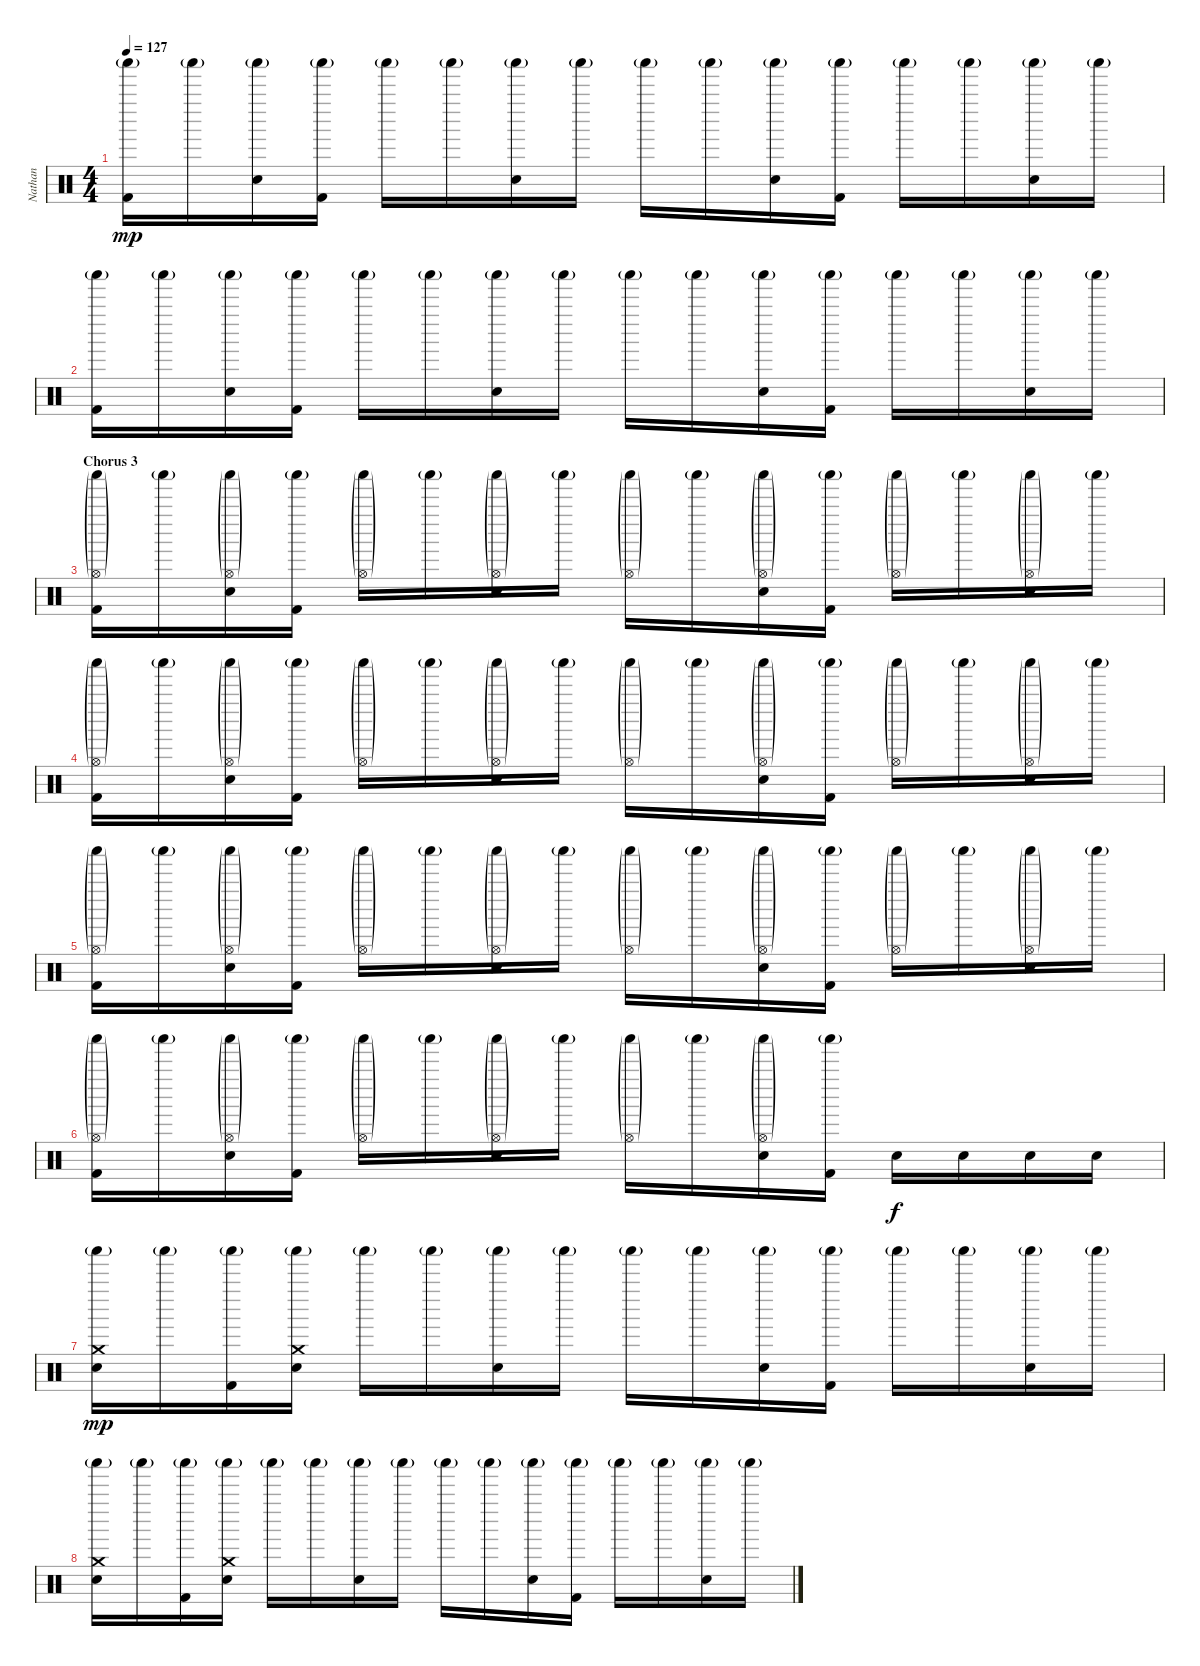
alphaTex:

\track ("Nathan" "Nathan") {instrument percussion}
\staff {score}
\articulation defaults
\ts (4 4)
\tempo 127
\clef neutral
\ks c
("Shaker (hit)"{g} "Kick (hit) 2").16{dy mp} "Shaker (hit)"{g}.16 ("Shaker (hit)"{g} "Electric Snare (hit)").16 ("Shaker (hit)"{g} "Kick (hit) 2").16 "Shaker (hit)"{g}.16 "Shaker (hit)"{g}.16 ("Shaker (hit)"{g} "Electric Snare (hit)").16 "Shaker (hit)"{g}.16 "Shaker (hit)"{g}.16 "Shaker (hit)"{g}.16 ("Shaker (hit)"{g} "Electric Snare (hit)").16 ("Shaker (hit)"{g} "Kick (hit) 2").16 "Shaker (hit)"{g}.16 "Shaker (hit)"{g}.16 ("Shaker (hit)"{g} "Electric Snare (hit)").16 "Shaker (hit)"{g}.16 |
("Shaker (hit)"{g} "Kick (hit) 2").16 "Shaker (hit)"{g}.16 ("Shaker (hit)"{g} "Electric Snare (hit)").16 ("Shaker (hit)"{g} "Kick (hit) 2").16 "Shaker (hit)"{g}.16 "Shaker (hit)"{g}.16 ("Shaker (hit)"{g} "Electric Snare (hit)").16 "Shaker (hit)"{g}.16 "Shaker (hit)"{g}.16 "Shaker (hit)"{g}.16 ("Shaker (hit)"{g} "Electric Snare (hit)").16 ("Shaker (hit)"{g} "Kick (hit) 2").16 "Shaker (hit)"{g}.16 "Shaker (hit)"{g}.16 ("Shaker (hit)"{g} "Electric Snare (hit)").16 "Shaker (hit)"{g}.16 |
\section ("" "Chorus 3")
("Shaker (hit)"{g} "Hi-Hat (open)"{g} "Kick (hit) 2").16 "Shaker (hit)"{g}.16 ("Shaker (hit)"{g} "Hi-Hat (open)"{g} "Electric Snare (hit)").16 ("Shaker (hit)"{g} "Kick (hit) 2").16 ("Shaker (hit)"{g} "Hi-Hat (open)"{g}).16 "Shaker (hit)"{g}.16 ("Shaker (hit)"{g} "Hi-Hat (open)"{g} "Electric Snare (hit)").16 "Shaker (hit)"{g}.16 ("Shaker (hit)"{g} "Hi-Hat (open)"{g}).16 "Shaker (hit)"{g}.16 ("Shaker (hit)"{g} "Hi-Hat (open)"{g} "Electric Snare (hit)").16 ("Shaker (hit)"{g} "Kick (hit) 2").16 ("Shaker (hit)"{g} "Hi-Hat (open)"{g}).16 "Shaker (hit)"{g}.16 ("Shaker (hit)"{g} "Hi-Hat (open)"{g} "Electric Snare (hit)").16 "Shaker (hit)"{g}.16 |
("Shaker (hit)"{g} "Hi-Hat (open)"{g} "Kick (hit) 2").16 "Shaker (hit)"{g}.16 ("Shaker (hit)"{g} "Hi-Hat (open)"{g} "Electric Snare (hit)").16 ("Shaker (hit)"{g} "Kick (hit) 2").16 ("Shaker (hit)"{g} "Hi-Hat (open)"{g}).16 "Shaker (hit)"{g}.16 ("Shaker (hit)"{g} "Hi-Hat (open)"{g} "Electric Snare (hit)").16 "Shaker (hit)"{g}.16 ("Shaker (hit)"{g} "Hi-Hat (open)"{g}).16 "Shaker (hit)"{g}.16 ("Shaker (hit)"{g} "Hi-Hat (open)"{g} "Electric Snare (hit)").16 ("Shaker (hit)"{g} "Kick (hit) 2").16 ("Shaker (hit)"{g} "Hi-Hat (open)"{g}).16 "Shaker (hit)"{g}.16 ("Shaker (hit)"{g} "Hi-Hat (open)"{g} "Electric Snare (hit)").16 "Shaker (hit)"{g}.16 |
("Shaker (hit)"{g} "Hi-Hat (open)"{g} "Kick (hit) 2").16 "Shaker (hit)"{g}.16 ("Shaker (hit)"{g} "Hi-Hat (open)"{g} "Electric Snare (hit)").16 ("Shaker (hit)"{g} "Kick (hit) 2").16 ("Shaker (hit)"{g} "Hi-Hat (open)"{g}).16 "Shaker (hit)"{g}.16 ("Shaker (hit)"{g} "Hi-Hat (open)"{g} "Electric Snare (hit)").16 "Shaker (hit)"{g}.16 ("Shaker (hit)"{g} "Hi-Hat (open)"{g}).16 "Shaker (hit)"{g}.16 ("Shaker (hit)"{g} "Hi-Hat (open)"{g} "Electric Snare (hit)").16 ("Shaker (hit)"{g} "Kick (hit) 2").16 ("Shaker (hit)"{g} "Hi-Hat (open)"{g}).16 "Shaker (hit)"{g}.16 ("Shaker (hit)"{g} "Hi-Hat (open)"{g} "Electric Snare (hit)").16 "Shaker (hit)"{g}.16 |
("Shaker (hit)"{g} "Hi-Hat (open)"{g} "Kick (hit) 2").16 "Shaker (hit)"{g}.16 ("Shaker (hit)"{g} "Hi-Hat (open)"{g} "Electric Snare (hit)").16 ("Shaker (hit)"{g} "Kick (hit) 2").16 ("Shaker (hit)"{g} "Hi-Hat (open)"{g}).16 "Shaker (hit)"{g}.16 ("Shaker (hit)"{g} "Hi-Hat (open)"{g} "Electric Snare (hit)").16 "Shaker (hit)"{g}.16 ("Shaker (hit)"{g} "Hi-Hat (open)"{g}).16 "Shaker (hit)"{g}.16 ("Shaker (hit)"{g} "Hi-Hat (open)"{g} "Electric Snare (hit)").16 ("Shaker (hit)"{g} "Kick (hit) 2").16 "Electric Snare (hit)".16{dy f} "Electric Snare (hit)".16 "Electric Snare (hit)".16 "Electric Snare (hit)".16 |
("Crash medium (hit)" "Shaker (hit)"{g} "Electric Snare (hit)").16{dy mp} "Shaker (hit)"{g}.16 ("Shaker (hit)"{g} "Kick (hit) 2").16 ("Crash medium (hit)" "Shaker (hit)"{g} "Electric Snare (hit)").16 "Shaker (hit)"{g}.16 "Shaker (hit)"{g}.16 ("Shaker (hit)"{g} "Electric Snare (hit)").16 "Shaker (hit)"{g}.16 "Shaker (hit)"{g}.16 "Shaker (hit)"{g}.16 ("Shaker (hit)"{g} "Electric Snare (hit)").16 ("Shaker (hit)"{g} "Kick (hit) 2").16 "Shaker (hit)"{g}.16 "Shaker (hit)"{g}.16 ("Shaker (hit)"{g} "Electric Snare (hit)").16 "Shaker (hit)"{g}.16 |
("Crash medium (hit)" "Shaker (hit)"{g} "Electric Snare (hit)").16 "Shaker (hit)"{g}.16 ("Shaker (hit)"{g} "Kick (hit) 2").16 ("Crash medium (hit)" "Shaker (hit)"{g} "Electric Snare (hit)").16 "Shaker (hit)"{g}.16 "Shaker (hit)"{g}.16 ("Shaker (hit)"{g} "Electric Snare (hit)").16 "Shaker (hit)"{g}.16 "Shaker (hit)"{g}.16 "Shaker (hit)"{g}.16 ("Shaker (hit)"{g} "Electric Snare (hit)").16 ("Shaker (hit)"{g} "Kick (hit) 2").16 "Shaker (hit)"{g}.16 "Shaker (hit)"{g}.16 ("Shaker (hit)"{g} "Electric Snare (hit)").16 "Shaker (hit)"{g}.16
